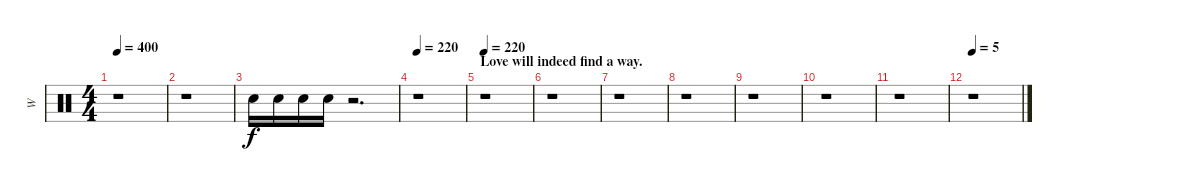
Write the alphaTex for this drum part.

\track ("W" "W") {instrument percussion}
\staff {score}
\articulation defaults
\ts (4 4)
\tempo 400
\clef neutral
\ks c
r.1{dy f} |
r.1 |
"Electric Snare (hit)".16 "Electric Snare (hit)".16 "Electric Snare (hit)".16 "Electric Snare (hit)".16 r.2{d} |
\tempo 220
r.1 |
\section ("" "Love will indeed find a way.")
\tempo 220
r.1 |
r.1 |
r.1 |
r.1 |
r.1 |
r.1 |
r.1 |
\tempo 5
r.1
